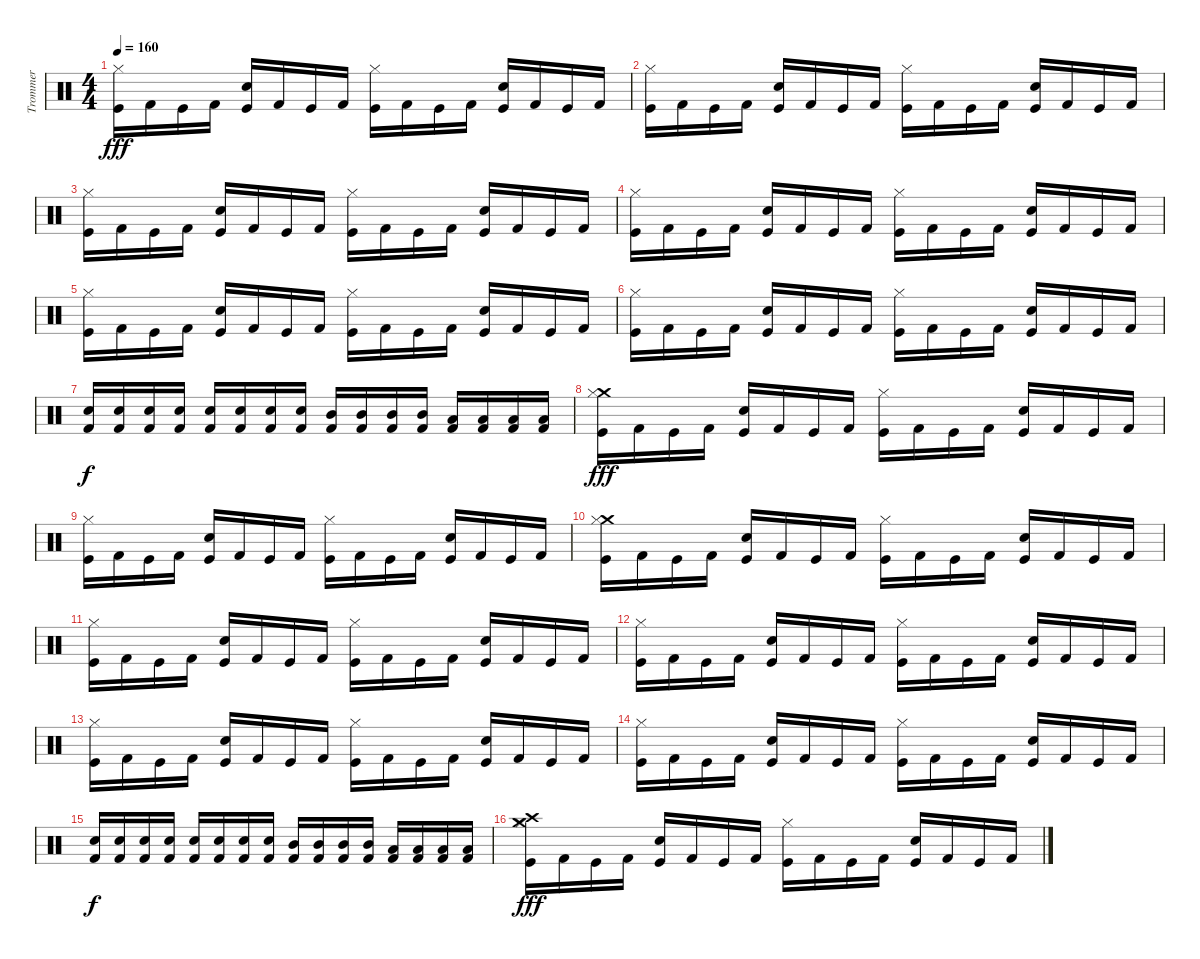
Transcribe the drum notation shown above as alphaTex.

\track ("Trommer" "Trommer") {instrument percussion}
\staff {score}
\articulation defaults
\ts (4 4)
\tempo 160
\clef neutral
\ks c
("Hi-Hat (closed)" "Kick (hit)").16{dy fff} "Kick (hit) 2".16 "Kick (hit)".16 "Kick (hit) 2".16 ("Snare (hit) 2" "Kick (hit)").16 "Kick (hit) 2".16 "Kick (hit)".16 "Kick (hit) 2".16 ("Hi-Hat (closed)" "Kick (hit)").16 "Kick (hit) 2".16 "Kick (hit)".16 "Kick (hit) 2".16 ("Snare (hit) 2" "Kick (hit)").16 "Kick (hit) 2".16 "Kick (hit)".16 "Kick (hit) 2".16 |
("Hi-Hat (closed)" "Kick (hit)").16 "Kick (hit) 2".16 "Kick (hit)".16 "Kick (hit) 2".16 ("Snare (hit) 2" "Kick (hit)").16 "Kick (hit) 2".16 "Kick (hit)".16 "Kick (hit) 2".16 ("Hi-Hat (closed)" "Kick (hit)").16 "Kick (hit) 2".16 "Kick (hit)".16 "Kick (hit) 2".16 ("Snare (hit) 2" "Kick (hit)").16 "Kick (hit) 2".16 "Kick (hit)".16 "Kick (hit) 2".16 |
("Hi-Hat (closed)" "Kick (hit)").16 "Kick (hit) 2".16 "Kick (hit)".16 "Kick (hit) 2".16 ("Snare (hit) 2" "Kick (hit)").16 "Kick (hit) 2".16 "Kick (hit)".16 "Kick (hit) 2".16 ("Hi-Hat (closed)" "Kick (hit)").16 "Kick (hit) 2".16 "Kick (hit)".16 "Kick (hit) 2".16 ("Snare (hit) 2" "Kick (hit)").16 "Kick (hit) 2".16 "Kick (hit)".16 "Kick (hit) 2".16 |
("Hi-Hat (closed)" "Kick (hit)").16 "Kick (hit) 2".16 "Kick (hit)".16 "Kick (hit) 2".16 ("Snare (hit) 2" "Kick (hit)").16 "Kick (hit) 2".16 "Kick (hit)".16 "Kick (hit) 2".16 ("Hi-Hat (closed)" "Kick (hit)").16 "Kick (hit) 2".16 "Kick (hit)".16 "Kick (hit) 2".16 ("Snare (hit) 2" "Kick (hit)").16 "Kick (hit) 2".16 "Kick (hit)".16 "Kick (hit) 2".16 |
("Hi-Hat (closed)" "Kick (hit)").16 "Kick (hit) 2".16 "Kick (hit)".16 "Kick (hit) 2".16 ("Snare (hit) 2" "Kick (hit)").16 "Kick (hit) 2".16 "Kick (hit)".16 "Kick (hit) 2".16 ("Hi-Hat (closed)" "Kick (hit)").16 "Kick (hit) 2".16 "Kick (hit)".16 "Kick (hit) 2".16 ("Snare (hit) 2" "Kick (hit)").16 "Kick (hit) 2".16 "Kick (hit)".16 "Kick (hit) 2".16 |
("Hi-Hat (closed)" "Kick (hit)").16 "Kick (hit) 2".16 "Kick (hit)".16 "Kick (hit) 2".16 ("Snare (hit) 2" "Kick (hit)").16 "Kick (hit) 2".16 "Kick (hit)".16 "Kick (hit) 2".16 ("Hi-Hat (closed)" "Kick (hit)").16 "Kick (hit) 2".16 "Kick (hit)".16 "Kick (hit) 2".16 ("Snare (hit) 2" "Kick (hit)").16 "Kick (hit) 2".16 "Kick (hit)".16 "Kick (hit) 2".16 |
("Snare (hit) 2" "Kick (hit) 2").16{dy f} ("Snare (hit) 2" "Kick (hit) 2").16 ("Snare (hit) 2" "Kick (hit) 2").16 ("Snare (hit) 2" "Kick (hit) 2").16 ("Snare (hit) 2" "Kick (hit) 2").16 ("Snare (hit) 2" "Kick (hit) 2").16 ("Snare (hit) 2" "Kick (hit) 2").16 ("Snare (hit) 2" "Kick (hit) 2").16 ("Mid Tom (hit)" "Kick (hit) 2").16 ("Mid Tom (hit)" "Kick (hit) 2").16 ("Mid Tom (hit)" "Kick (hit) 2").16 ("Mid Tom (hit)" "Kick (hit) 2").16 ("Low Tom (hit)" "Kick (hit) 2").16 ("Low Tom (hit)" "Kick (hit) 2").16 ("Low Tom (hit)" "Kick (hit) 2").16 ("Low Tom (hit)" "Kick (hit) 2").16 |
("Crash medium (hit)" "Hi-Hat (closed)" "Kick (hit)").16{dy fff} "Kick (hit) 2".16 "Kick (hit)".16 "Kick (hit) 2".16 ("Snare (hit) 2" "Kick (hit)").16 "Kick (hit) 2".16 "Kick (hit)".16 "Kick (hit) 2".16 ("Hi-Hat (closed)" "Kick (hit)").16 "Kick (hit) 2".16 "Kick (hit)".16 "Kick (hit) 2".16 ("Snare (hit) 2" "Kick (hit)").16 "Kick (hit) 2".16 "Kick (hit)".16 "Kick (hit) 2".16 |
("Hi-Hat (closed)" "Kick (hit)").16 "Kick (hit) 2".16 "Kick (hit)".16 "Kick (hit) 2".16 ("Snare (hit) 2" "Kick (hit)").16 "Kick (hit) 2".16 "Kick (hit)".16 "Kick (hit) 2".16 ("Hi-Hat (closed)" "Kick (hit)").16 "Kick (hit) 2".16 "Kick (hit)".16 "Kick (hit) 2".16 ("Snare (hit) 2" "Kick (hit)").16 "Kick (hit) 2".16 "Kick (hit)".16 "Kick (hit) 2".16 |
("Crash medium (hit)" "Hi-Hat (closed)" "Kick (hit)").16 "Kick (hit) 2".16 "Kick (hit)".16 "Kick (hit) 2".16 ("Snare (hit) 2" "Kick (hit)").16 "Kick (hit) 2".16 "Kick (hit)".16 "Kick (hit) 2".16 ("Hi-Hat (closed)" "Kick (hit)").16 "Kick (hit) 2".16 "Kick (hit)".16 "Kick (hit) 2".16 ("Snare (hit) 2" "Kick (hit)").16 "Kick (hit) 2".16 "Kick (hit)".16 "Kick (hit) 2".16 |
("Hi-Hat (closed)" "Kick (hit)").16 "Kick (hit) 2".16 "Kick (hit)".16 "Kick (hit) 2".16 ("Snare (hit) 2" "Kick (hit)").16 "Kick (hit) 2".16 "Kick (hit)".16 "Kick (hit) 2".16 ("Hi-Hat (closed)" "Kick (hit)").16 "Kick (hit) 2".16 "Kick (hit)".16 "Kick (hit) 2".16 ("Snare (hit) 2" "Kick (hit)").16 "Kick (hit) 2".16 "Kick (hit)".16 "Kick (hit) 2".16 |
("Hi-Hat (closed)" "Kick (hit)").16 "Kick (hit) 2".16 "Kick (hit)".16 "Kick (hit) 2".16 ("Snare (hit) 2" "Kick (hit)").16 "Kick (hit) 2".16 "Kick (hit)".16 "Kick (hit) 2".16 ("Hi-Hat (closed)" "Kick (hit)").16 "Kick (hit) 2".16 "Kick (hit)".16 "Kick (hit) 2".16 ("Snare (hit) 2" "Kick (hit)").16 "Kick (hit) 2".16 "Kick (hit)".16 "Kick (hit) 2".16 |
("Hi-Hat (closed)" "Kick (hit)").16 "Kick (hit) 2".16 "Kick (hit)".16 "Kick (hit) 2".16 ("Snare (hit) 2" "Kick (hit)").16 "Kick (hit) 2".16 "Kick (hit)".16 "Kick (hit) 2".16 ("Hi-Hat (closed)" "Kick (hit)").16 "Kick (hit) 2".16 "Kick (hit)".16 "Kick (hit) 2".16 ("Snare (hit) 2" "Kick (hit)").16 "Kick (hit) 2".16 "Kick (hit)".16 "Kick (hit) 2".16 |
("Hi-Hat (closed)" "Kick (hit)").16 "Kick (hit) 2".16 "Kick (hit)".16 "Kick (hit) 2".16 ("Snare (hit) 2" "Kick (hit)").16 "Kick (hit) 2".16 "Kick (hit)".16 "Kick (hit) 2".16 ("Hi-Hat (closed)" "Kick (hit)").16 "Kick (hit) 2".16 "Kick (hit)".16 "Kick (hit) 2".16 ("Snare (hit) 2" "Kick (hit)").16 "Kick (hit) 2".16 "Kick (hit)".16 "Kick (hit) 2".16 |
("Snare (hit) 2" "Kick (hit) 2").16{dy f} ("Snare (hit) 2" "Kick (hit) 2").16 ("Snare (hit) 2" "Kick (hit) 2").16 ("Snare (hit) 2" "Kick (hit) 2").16 ("Snare (hit) 2" "Kick (hit) 2").16 ("Snare (hit) 2" "Kick (hit) 2").16 ("Snare (hit) 2" "Kick (hit) 2").16 ("Snare (hit) 2" "Kick (hit) 2").16 ("Mid Tom (hit)" "Kick (hit) 2").16 ("Mid Tom (hit)" "Kick (hit) 2").16 ("Mid Tom (hit)" "Kick (hit) 2").16 ("Mid Tom (hit)" "Kick (hit) 2").16 ("Low Tom (hit)" "Kick (hit) 2").16 ("Low Tom (hit)" "Kick (hit) 2").16 ("Low Tom (hit)" "Kick (hit) 2").16 ("Low Tom (hit)" "Kick (hit) 2").16 |
("Crash medium (hit)" "Crash high (hit)" "Hi-Hat (closed)" "Kick (hit)").16{dy fff} "Kick (hit) 2".16 "Kick (hit)".16 "Kick (hit) 2".16 ("Snare (hit) 2" "Kick (hit)").16 "Kick (hit) 2".16 "Kick (hit)".16 "Kick (hit) 2".16 ("Hi-Hat (closed)" "Kick (hit)").16 "Kick (hit) 2".16 "Kick (hit)".16 "Kick (hit) 2".16 ("Snare (hit) 2" "Kick (hit)").16 "Kick (hit) 2".16 "Kick (hit)".16 "Kick (hit) 2".16
